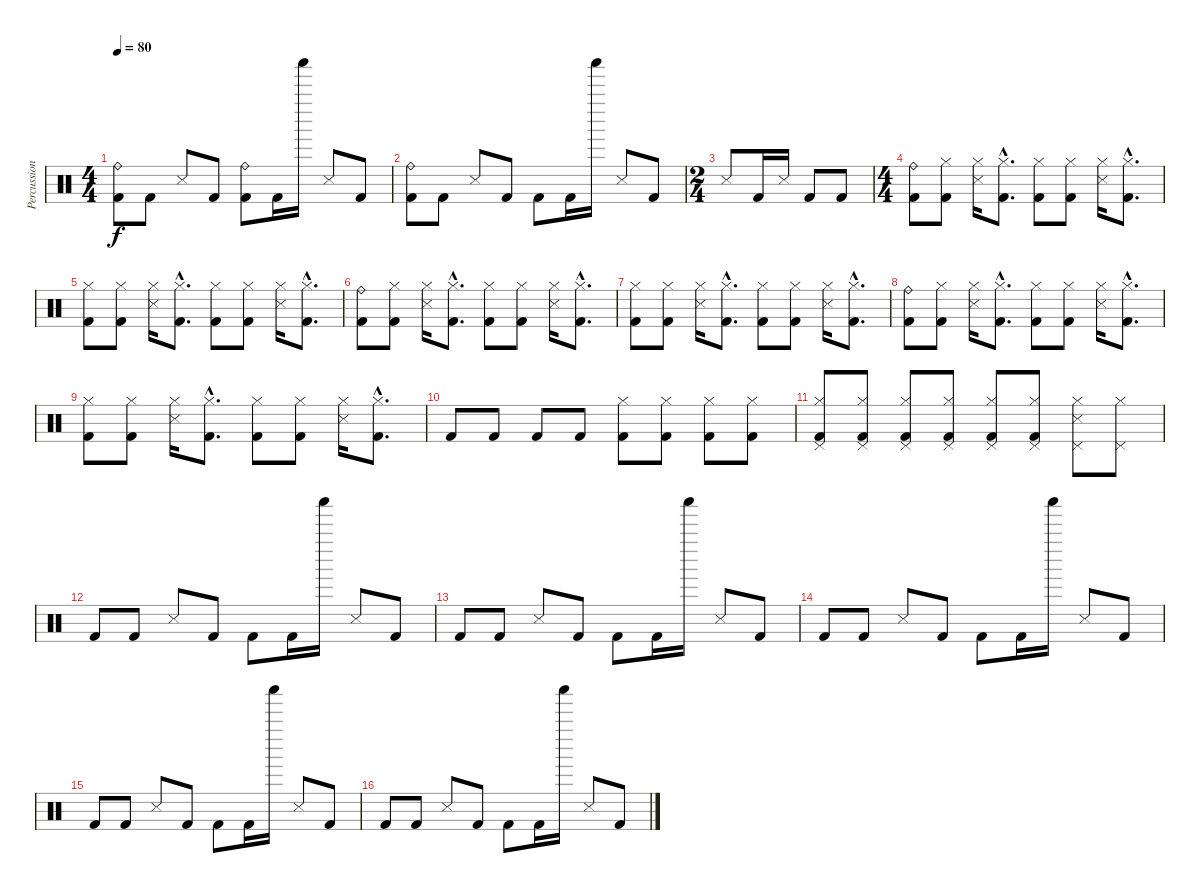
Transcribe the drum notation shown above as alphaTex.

\track ("Percussions" "Percussion") {instrument percussion}
\staff {score}
\articulation defaults
\ts (4 4)
\tempo 80
\clef neutral
\ks c
("Ride (bell)" "Kick (hit) 2").8{dy f} "Kick (hit) 2".8 "Snare (side stick) 3".8 "Kick (hit) 2".8 ("Ride (bell)" "Kick (hit) 2").8 "Kick (hit) 2".16 "Shaker (hit)".16 "Snare (side stick) 3".8 "Kick (hit) 2".8 |
("Ride (bell)" "Kick (hit) 2").8 "Kick (hit) 2".8 "Snare (side stick) 3".8 "Kick (hit) 2".8 "Kick (hit) 2".8 "Kick (hit) 2".16 "Shaker (hit)".16 "Snare (side stick) 3".8 "Kick (hit) 2".8 |
\ts (2 4)
"Snare (side stick) 3".8 "Kick (hit) 2".16 "Snare (side stick) 3".16 "Kick (hit) 2".8 "Kick (hit) 2".8 |
\ts (4 4)
("Ride (bell)" "Kick (hit) 2").8 ("Hi-Hat (closed)" "Kick (hit) 2").8 ("Hi-Hat (closed)" "Snare (side stick) 3").16 ("Hi-Hat (closed)"{hac} "Kick (hit) 2"{hac}).8{d} ("Hi-Hat (closed)" "Kick (hit) 2").8 ("Hi-Hat (closed)" "Kick (hit) 2").8 ("Hi-Hat (closed)" "Snare (side stick) 3").16 ("Hi-Hat (closed)"{hac} "Kick (hit) 2"{hac}).8{d} |
("Hi-Hat (closed)" "Kick (hit) 2").8 ("Hi-Hat (closed)" "Kick (hit) 2").8 ("Hi-Hat (closed)" "Snare (side stick) 3").16 ("Hi-Hat (closed)"{hac} "Kick (hit) 2"{hac}).8{d} ("Hi-Hat (closed)" "Kick (hit) 2").8 ("Hi-Hat (closed)" "Kick (hit) 2").8 ("Hi-Hat (closed)" "Snare (side stick) 3").16 ("Hi-Hat (closed)"{hac} "Kick (hit) 2"{hac}).8{d} |
("Ride (bell)" "Kick (hit) 2").8 ("Hi-Hat (closed)" "Kick (hit) 2").8 ("Hi-Hat (closed)" "Snare (side stick) 3").16 ("Hi-Hat (closed)"{hac} "Kick (hit) 2"{hac}).8{d} ("Hi-Hat (closed)" "Kick (hit) 2").8 ("Hi-Hat (closed)" "Kick (hit) 2").8 ("Hi-Hat (closed)" "Snare (side stick) 3").16 ("Hi-Hat (closed)"{hac} "Kick (hit) 2"{hac}).8{d} |
("Hi-Hat (closed)" "Kick (hit) 2").8 ("Hi-Hat (closed)" "Kick (hit) 2").8 ("Hi-Hat (closed)" "Snare (side stick) 3").16 ("Hi-Hat (closed)"{hac} "Kick (hit) 2"{hac}).8{d} ("Hi-Hat (closed)" "Kick (hit) 2").8 ("Hi-Hat (closed)" "Kick (hit) 2").8 ("Hi-Hat (closed)" "Snare (side stick) 3").16 ("Hi-Hat (closed)"{hac} "Kick (hit) 2"{hac}).8{d} |
("Ride (bell)" "Kick (hit) 2").8 ("Hi-Hat (closed)" "Kick (hit) 2").8 ("Hi-Hat (closed)" "Snare (side stick) 3").16 ("Hi-Hat (closed)"{hac} "Kick (hit) 2"{hac}).8{d} ("Hi-Hat (closed)" "Kick (hit) 2").8 ("Hi-Hat (closed)" "Kick (hit) 2").8 ("Hi-Hat (closed)" "Snare (side stick) 3").16 ("Hi-Hat (closed)"{hac} "Kick (hit) 2"{hac}).8{d} |
("Hi-Hat (closed)" "Kick (hit) 2").8 ("Hi-Hat (closed)" "Kick (hit) 2").8 ("Hi-Hat (closed)" "Snare (side stick) 3").16 ("Hi-Hat (closed)"{hac} "Kick (hit) 2"{hac}).8{d} ("Hi-Hat (closed)" "Kick (hit) 2").8 ("Hi-Hat (closed)" "Kick (hit) 2").8 ("Hi-Hat (closed)" "Snare (side stick) 3").16 ("Hi-Hat (closed)"{hac} "Kick (hit) 2"{hac}).8{d} |
"Kick (hit) 2".8 "Kick (hit) 2".8 "Kick (hit) 2".8 "Kick (hit) 2".8 ("Hi-Hat (closed)" "Kick (hit) 2").8 ("Hi-Hat (closed)" "Kick (hit) 2").8 ("Hi-Hat (closed)" "Kick (hit) 2").8 ("Hi-Hat (closed)" "Kick (hit) 2").8 |
("Pedal Hi-Hat (hit)" "Hi-Hat (closed)" "Kick (hit) 2").8 ("Pedal Hi-Hat (hit)" "Hi-Hat (closed)" "Kick (hit) 2").8 ("Pedal Hi-Hat (hit)" "Hi-Hat (closed)" "Kick (hit) 2").8 ("Pedal Hi-Hat (hit)" "Hi-Hat (closed)" "Kick (hit) 2").8 ("Pedal Hi-Hat (hit)" "Hi-Hat (closed)" "Kick (hit) 2").8 ("Pedal Hi-Hat (hit)" "Hi-Hat (closed)" "Kick (hit) 2").8 ("Pedal Hi-Hat (hit)" "Snare (side stick) 3" "Hi-Hat (closed)").8 ("Pedal Hi-Hat (hit)" "Hi-Hat (closed)").8 |
"Kick (hit) 2".8 "Kick (hit) 2".8 "Snare (side stick) 3".8 "Kick (hit) 2".8 "Kick (hit) 2".8 "Kick (hit) 2".16 "Shaker (hit)".16 "Snare (side stick) 3".8 "Kick (hit) 2".8 |
"Kick (hit) 2".8 "Kick (hit) 2".8 "Snare (side stick) 3".8 "Kick (hit) 2".8 "Kick (hit) 2".8 "Kick (hit) 2".16 "Shaker (hit)".16 "Snare (side stick) 3".8 "Kick (hit) 2".8 |
"Kick (hit) 2".8 "Kick (hit) 2".8 "Snare (side stick) 3".8 "Kick (hit) 2".8 "Kick (hit) 2".8 "Kick (hit) 2".16 "Shaker (hit)".16 "Snare (side stick) 3".8 "Kick (hit) 2".8 |
"Kick (hit) 2".8 "Kick (hit) 2".8 "Snare (side stick) 3".8 "Kick (hit) 2".8 "Kick (hit) 2".8 "Kick (hit) 2".16 "Shaker (hit)".16 "Snare (side stick) 3".8 "Kick (hit) 2".8 |
"Kick (hit) 2".8 "Kick (hit) 2".8 "Snare (side stick) 3".8 "Kick (hit) 2".8 "Kick (hit) 2".8 "Kick (hit) 2".16 "Shaker (hit)".16 "Snare (side stick) 3".8 "Kick (hit) 2".8
